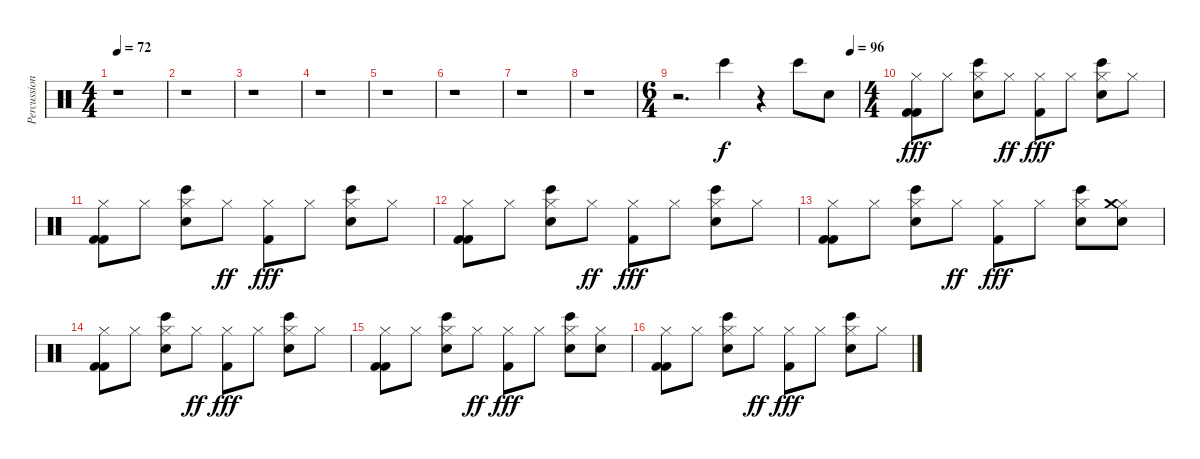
\track ("Percussion" "Percussion") {instrument percussion}
\staff {score}
\articulation defaults
\ts (4 4)
\tempo 72
\clef neutral
\ks c
r.1{dy f} |
r.1 |
r.1 |
r.1 |
r.1 |
r.1 |
r.1 |
r.1 |
\ts (6 4)
\tempo (96 0.9583333333333334)
r.2{d} "Bongo High (hit)".4 r.4 "Bongo High (hit)".8 "Snare (hit) 2".8 |
\ts (4 4)
("Hi-Hat (closed)" "Kick (hit) 2" "Kick (hit) 2").8{dy fff} "Hi-Hat (closed)".8 ("Hi-Hat (closed)" "Bongo High (hit)" "Snare (hit) 2").8 "Hi-Hat (closed)".8{dy ff} ("Hi-Hat (closed)" "Kick (hit) 2").8{dy fff} "Hi-Hat (closed)".8 ("Hi-Hat (closed)" "Bongo High (hit)" "Snare (hit) 2").8 "Hi-Hat (closed)".8 |
("Hi-Hat (closed)" "Kick (hit) 2" "Kick (hit) 2").8 "Hi-Hat (closed)".8 ("Hi-Hat (closed)" "Bongo High (hit)" "Snare (hit) 2").8 "Hi-Hat (closed)".8{dy ff} ("Hi-Hat (closed)" "Kick (hit) 2").8{dy fff} "Hi-Hat (closed)".8 ("Hi-Hat (closed)" "Bongo High (hit)" "Snare (hit) 2").8 "Hi-Hat (closed)".8 |
("Hi-Hat (closed)" "Kick (hit) 2" "Kick (hit) 2").8 "Hi-Hat (closed)".8 ("Hi-Hat (closed)" "Bongo High (hit)" "Snare (hit) 2").8 "Hi-Hat (closed)".8{dy ff} ("Hi-Hat (closed)" "Kick (hit) 2").8{dy fff} "Hi-Hat (closed)".8 ("Hi-Hat (closed)" "Bongo High (hit)" "Snare (hit) 2").8 "Hi-Hat (closed)".8 |
("Hi-Hat (closed)" "Kick (hit) 2" "Kick (hit) 2").8 "Hi-Hat (closed)".8 ("Hi-Hat (closed)" "Bongo High (hit)" "Snare (hit) 2").8 "Hi-Hat (closed)".8{dy ff} ("Hi-Hat (closed)" "Kick (hit) 2").8{dy fff} "Hi-Hat (closed)".8 ("Hi-Hat (closed)" "Bongo High (hit)" "Snare (hit) 2").8 ("Hi-Hat (closed)" "Crash medium (hit)" "Snare (hit) 2").8 |
("Hi-Hat (closed)" "Kick (hit) 2" "Kick (hit) 2").8 "Hi-Hat (closed)".8 ("Hi-Hat (closed)" "Bongo High (hit)" "Snare (hit) 2").8 "Hi-Hat (closed)".8{dy ff} ("Hi-Hat (closed)" "Kick (hit) 2").8{dy fff} "Hi-Hat (closed)".8 ("Hi-Hat (closed)" "Bongo High (hit)" "Snare (hit) 2").8 "Hi-Hat (closed)".8 |
("Hi-Hat (closed)" "Kick (hit) 2" "Kick (hit) 2").8 "Hi-Hat (closed)".8 ("Hi-Hat (closed)" "Bongo High (hit)" "Snare (hit) 2").8 "Hi-Hat (closed)".8{dy ff} ("Hi-Hat (closed)" "Kick (hit) 2").8{dy fff} "Hi-Hat (closed)".8 ("Hi-Hat (closed)" "Bongo High (hit)" "Snare (hit) 2").8 ("Hi-Hat (closed)" "Snare (hit) 2").8 |
("Hi-Hat (closed)" "Kick (hit) 2" "Kick (hit) 2").8 "Hi-Hat (closed)".8 ("Hi-Hat (closed)" "Bongo High (hit)" "Snare (hit) 2").8 "Hi-Hat (closed)".8{dy ff} ("Hi-Hat (closed)" "Kick (hit) 2").8{dy fff} "Hi-Hat (closed)".8 ("Hi-Hat (closed)" "Bongo High (hit)" "Snare (hit) 2").8 "Hi-Hat (closed)".8
